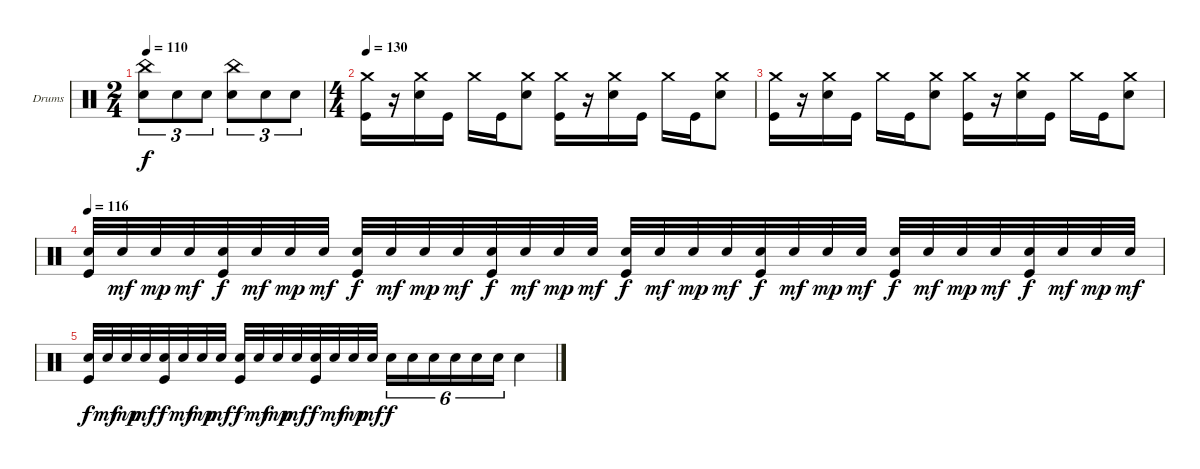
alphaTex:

\bracketExtendMode groupsimilarinstruments
\firstSystemTrackNameOrientation horizontal
\otherSystemsTrackNameOrientation horizontal
\track ("Drumkit" "Drums") {instrument percussion}
\staff {score}
\articulation defaults
\ts (2 4)
\tempo 110
\clef neutral
\ks c
("Snare (hit) 2" "China (hit)").8{tu (3 2) dy f} "Snare (hit) 2".8{tu (3 2)} "Snare (hit) 2".8{tu (3 2)} ("Snare (hit) 2" "China (hit)").8{tu (3 2)} "Snare (hit) 2".8{tu (3 2)} "Snare (hit) 2".8{tu (3 2)} |
\ts (4 4)
\tempo 130
("Kick (hit)" "Crash medium (hit)").16 r.16 ("Snare (hit) 2" "Crash medium (hit)").16 "Kick (hit)".16 "Crash medium (hit)".16 "Kick (hit)".16 ("Snare (hit) 2" "Crash medium (hit)").8 ("Kick (hit)" "Crash medium (hit)").16 r.16 ("Snare (hit) 2" "Crash medium (hit)").16 "Kick (hit)".16 "Crash medium (hit)".16 "Kick (hit)".16 ("Snare (hit) 2" "Crash medium (hit)").8 |
("Kick (hit)" "Crash medium (hit)").16 r.16 ("Snare (hit) 2" "Crash medium (hit)").16 "Kick (hit)".16 "Crash medium (hit)".16 "Kick (hit)".16 ("Snare (hit) 2" "Crash medium (hit)").8 ("Kick (hit)" "Crash medium (hit)").16 r.16 ("Snare (hit) 2" "Crash medium (hit)").16 "Kick (hit)".16 "Crash medium (hit)".16 "Kick (hit)".16 ("Snare (hit) 2" "Crash medium (hit)").8 |
\tempo 116
("Kick (hit)" "Snare (hit) 2").32 "Snare (hit) 2".32{dy mf} "Snare (hit) 2".32{dy mp} "Snare (hit) 2".32{dy mf} ("Kick (hit)" "Snare (hit) 2").32{dy f} "Snare (hit) 2".32{dy mf} "Snare (hit) 2".32{dy mp} "Snare (hit) 2".32{dy mf} ("Kick (hit)" "Snare (hit) 2").32{dy f} "Snare (hit) 2".32{dy mf} "Snare (hit) 2".32{dy mp} "Snare (hit) 2".32{dy mf} ("Kick (hit)" "Snare (hit) 2").32{dy f} "Snare (hit) 2".32{dy mf} "Snare (hit) 2".32{dy mp} "Snare (hit) 2".32{dy mf} ("Kick (hit)" "Snare (hit) 2").32{dy f} "Snare (hit) 2".32{dy mf} "Snare (hit) 2".32{dy mp} "Snare (hit) 2".32{dy mf} ("Kick (hit)" "Snare (hit) 2").32{dy f} "Snare (hit) 2".32{dy mf} "Snare (hit) 2".32{dy mp} "Snare (hit) 2".32{dy mf} ("Kick (hit)" "Snare (hit) 2").32{dy f} "Snare (hit) 2".32{dy mf} "Snare (hit) 2".32{dy mp} "Snare (hit) 2".32{dy mf} ("Kick (hit)" "Snare (hit) 2").32{dy f} "Snare (hit) 2".32{dy mf} "Snare (hit) 2".32{dy mp} "Snare (hit) 2".32{dy mf} |
("Kick (hit)" "Snare (hit) 2").32{dy f} "Snare (hit) 2".32{dy mf} "Snare (hit) 2".32{dy mp} "Snare (hit) 2".32{dy mf} ("Kick (hit)" "Snare (hit) 2").32{dy f} "Snare (hit) 2".32{dy mf} "Snare (hit) 2".32{dy mp} "Snare (hit) 2".32{dy mf} ("Kick (hit)" "Snare (hit) 2").32{dy f} "Snare (hit) 2".32{dy mf} "Snare (hit) 2".32{dy mp} "Snare (hit) 2".32{dy mf} ("Kick (hit)" "Snare (hit) 2").32{dy f} "Snare (hit) 2".32{dy mf} "Snare (hit) 2".32{dy mp} "Snare (hit) 2".32{dy mf} "Snare (hit) 2".16{tu (6 4) dy f} "Snare (hit) 2".16{tu (6 4)} "Snare (hit) 2".16{tu (6 4)} "Snare (hit) 2".16{tu (6 4)} "Snare (hit) 2".16{tu (6 4)} "Snare (hit) 2".16{tu (6 4)} "Snare (hit) 2".4
